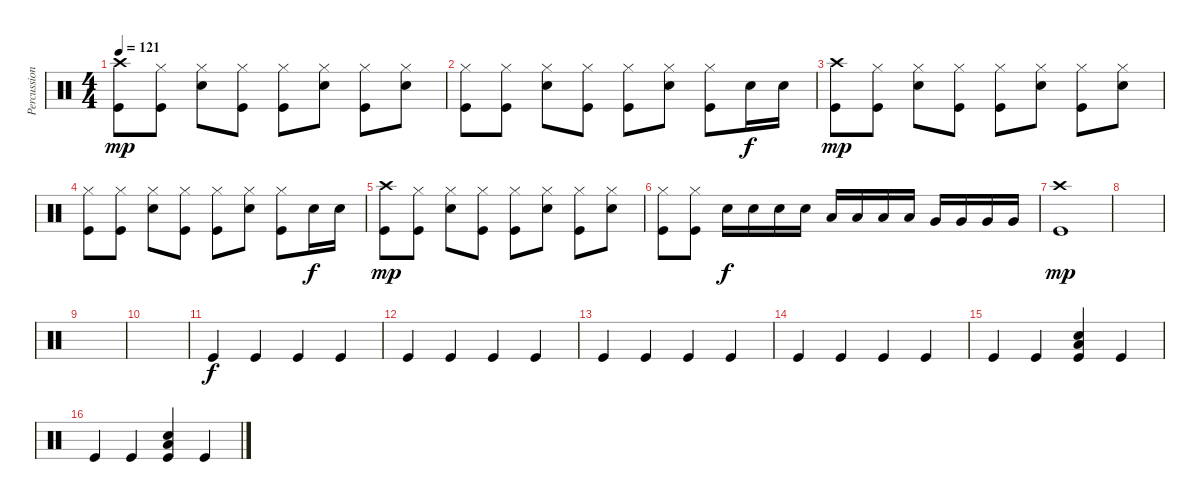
\track ("Percussion" "Percussion") {instrument percussion}
\staff {score}
\articulation defaults
\ts (4 4)
\tempo 121
\clef neutral
\ks c
("Crash high (hit)" "Kick (hit)").8{dy mp} ("Hi-Hat (closed)" "Kick (hit)").8 ("Hi-Hat (closed)" "Electric Snare (hit)").8 ("Hi-Hat (closed)" "Kick (hit)").8 ("Hi-Hat (closed)" "Kick (hit)").8 ("Hi-Hat (closed)" "Electric Snare (hit)").8 ("Hi-Hat (closed)" "Kick (hit)").8 ("Hi-Hat (closed)" "Electric Snare (hit)").8 |
("Hi-Hat (closed)" "Kick (hit)").8 ("Hi-Hat (closed)" "Kick (hit)").8 ("Hi-Hat (closed)" "Electric Snare (hit)").8 ("Hi-Hat (closed)" "Kick (hit)").8 ("Hi-Hat (closed)" "Kick (hit)").8 ("Hi-Hat (closed)" "Electric Snare (hit)").8 ("Hi-Hat (closed)" "Kick (hit)").8 "Electric Snare (hit)".16{dy f} "Electric Snare (hit)".16 |
("Crash high (hit)" "Kick (hit)").8{dy mp} ("Hi-Hat (closed)" "Kick (hit)").8 ("Hi-Hat (closed)" "Electric Snare (hit)").8 ("Hi-Hat (closed)" "Kick (hit)").8 ("Hi-Hat (closed)" "Kick (hit)").8 ("Hi-Hat (closed)" "Electric Snare (hit)").8 ("Hi-Hat (closed)" "Kick (hit)").8 ("Hi-Hat (closed)" "Electric Snare (hit)").8 |
("Hi-Hat (closed)" "Kick (hit)").8 ("Hi-Hat (closed)" "Kick (hit)").8 ("Hi-Hat (closed)" "Electric Snare (hit)").8 ("Hi-Hat (closed)" "Kick (hit)").8 ("Hi-Hat (closed)" "Kick (hit)").8 ("Hi-Hat (closed)" "Electric Snare (hit)").8 ("Hi-Hat (closed)" "Kick (hit)").8 "Electric Snare (hit)".16{dy f} "Electric Snare (hit)".16 |
("Crash high (hit)" "Kick (hit)").8{dy mp} ("Hi-Hat (closed)" "Kick (hit)").8 ("Hi-Hat (closed)" "Electric Snare (hit)").8 ("Hi-Hat (closed)" "Kick (hit)").8 ("Hi-Hat (closed)" "Kick (hit)").8 ("Hi-Hat (closed)" "Electric Snare (hit)").8 ("Hi-Hat (closed)" "Kick (hit)").8 ("Hi-Hat (closed)" "Electric Snare (hit)").8 |
("Hi-Hat (closed)" "Kick (hit)").8 ("Hi-Hat (closed)" "Kick (hit)").8 "Electric Snare (hit)".16{dy f} "Electric Snare (hit)".16 "Electric Snare (hit)".16 "Electric Snare (hit)".16 "Low Tom (hit)".16 "Low Tom (hit)".16 "Low Tom (hit)".16 "Low Tom (hit)".16 "Very Low Tom (hit)".16 "Very Low Tom (hit)".16 "Very Low Tom (hit)".16 "Very Low Tom (hit)".16 |
("Crash high (hit)" "Kick (hit)").1{dy mp} |
|
|
|
"Kick (hit)".4{dy f} "Kick (hit)".4 "Kick (hit)".4 "Kick (hit)".4 |
"Kick (hit)".4 "Kick (hit)".4 "Kick (hit)".4 "Kick (hit)".4 |
"Kick (hit)".4 "Kick (hit)".4 "Kick (hit)".4 "Kick (hit)".4 |
"Kick (hit)".4 "Kick (hit)".4 "Kick (hit)".4 "Kick (hit)".4 |
"Kick (hit)".4 "Kick (hit)".4 ("Electric Snare (hit)" "Low Floor Tom (hit)" "Kick (hit)").4 "Kick (hit)".4 |
"Kick (hit)".4 "Kick (hit)".4 ("Electric Snare (hit)" "Low Floor Tom (hit)" "Kick (hit)").4 "Kick (hit)".4
